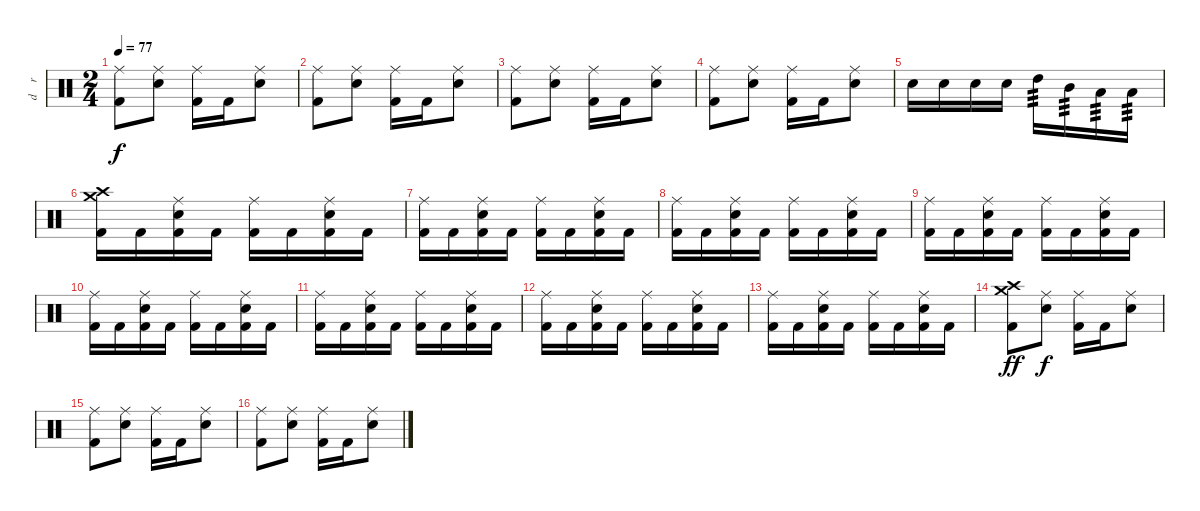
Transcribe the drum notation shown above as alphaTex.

\track ("d    r     u    m    s" "d    r    ") {instrument percussion}
\staff {score}
\articulation defaults
\ts (2 4)
\tempo 77
\clef neutral
\ks c
("Ride (middle)" "Kick (hit) 2").8{dy f} ("Ride (middle)" "Electric Snare (hit)").8 ("Ride (middle)" "Kick (hit) 2").16 "Kick (hit) 2".16 ("Ride (middle)" "Electric Snare (hit)").8 |
("Ride (middle)" "Kick (hit) 2").8 ("Ride (middle)" "Electric Snare (hit)").8 ("Ride (middle)" "Kick (hit) 2").16 "Kick (hit) 2".16 ("Ride (middle)" "Electric Snare (hit)").8 |
("Ride (middle)" "Kick (hit) 2").8 ("Ride (middle)" "Electric Snare (hit)").8 ("Ride (middle)" "Kick (hit) 2").16 "Kick (hit) 2".16 ("Ride (middle)" "Electric Snare (hit)").8 |
("Ride (middle)" "Kick (hit) 2").8 ("Ride (middle)" "Electric Snare (hit)").8 ("Ride (middle)" "Kick (hit) 2").16 "Kick (hit) 2".16 ("Ride (middle)" "Electric Snare (hit)").8 |
"Electric Snare (hit)".16 "Electric Snare (hit)".16 "Electric Snare (hit)".16 "Electric Snare (hit)".16 "High Tom (hit)".16{tp 3} "Mid Tom (hit)".16{tp 3} "Low Tom (hit)".16{tp 3} "Low Floor Tom (hit)".16{tp 3} |
("Crash high (hit)" "Crash medium (hit)" "Kick (hit) 2").16 "Kick (hit) 2".16 ("Ride (middle)" "Electric Snare (hit)" "Kick (hit) 2").16 "Kick (hit) 2".16 ("Ride (middle)" "Kick (hit) 2").16 "Kick (hit) 2".16 ("Ride (middle)" "Electric Snare (hit)" "Kick (hit) 2").16 "Kick (hit) 2".16 |
("Ride (middle)" "Kick (hit) 2").16 "Kick (hit) 2".16 ("Ride (middle)" "Electric Snare (hit)" "Kick (hit) 2").16 "Kick (hit) 2".16 ("Ride (middle)" "Kick (hit) 2").16 "Kick (hit) 2".16 ("Ride (middle)" "Electric Snare (hit)" "Kick (hit) 2").16 "Kick (hit) 2".16 |
("Ride (middle)" "Kick (hit) 2").16 "Kick (hit) 2".16 ("Ride (middle)" "Electric Snare (hit)" "Kick (hit) 2").16 "Kick (hit) 2".16 ("Ride (middle)" "Kick (hit) 2").16 "Kick (hit) 2".16 ("Ride (middle)" "Electric Snare (hit)" "Kick (hit) 2").16 "Kick (hit) 2".16 |
("Ride (middle)" "Kick (hit) 2").16 "Kick (hit) 2".16 ("Ride (middle)" "Electric Snare (hit)" "Kick (hit) 2").16 "Kick (hit) 2".16 ("Ride (middle)" "Kick (hit) 2").16 "Kick (hit) 2".16 ("Ride (middle)" "Electric Snare (hit)" "Kick (hit) 2").16 "Kick (hit) 2".16 |
("Ride (middle)" "Kick (hit) 2").16 "Kick (hit) 2".16 ("Ride (middle)" "Electric Snare (hit)" "Kick (hit) 2").16 "Kick (hit) 2".16 ("Ride (middle)" "Kick (hit) 2").16 "Kick (hit) 2".16 ("Ride (middle)" "Electric Snare (hit)" "Kick (hit) 2").16 "Kick (hit) 2".16 |
("Ride (middle)" "Kick (hit) 2").16 "Kick (hit) 2".16 ("Ride (middle)" "Electric Snare (hit)" "Kick (hit) 2").16 "Kick (hit) 2".16 ("Ride (middle)" "Kick (hit) 2").16 "Kick (hit) 2".16 ("Ride (middle)" "Electric Snare (hit)" "Kick (hit) 2").16 "Kick (hit) 2".16 |
("Ride (middle)" "Kick (hit) 2").16 "Kick (hit) 2".16 ("Ride (middle)" "Electric Snare (hit)" "Kick (hit) 2").16 "Kick (hit) 2".16 ("Ride (middle)" "Kick (hit) 2").16 "Kick (hit) 2".16 ("Ride (middle)" "Electric Snare (hit)" "Kick (hit) 2").16 "Kick (hit) 2".16 |
("Ride (middle)" "Kick (hit) 2").16 "Kick (hit) 2".16 ("Ride (middle)" "Electric Snare (hit)" "Kick (hit) 2").16 "Kick (hit) 2".16 ("Ride (middle)" "Kick (hit) 2").16 "Kick (hit) 2".16 ("Ride (middle)" "Electric Snare (hit)" "Kick (hit) 2").16 "Kick (hit) 2".16 |
("Crash high (hit)" "Crash medium (hit)" "Kick (hit) 2").8{dy ff} ("Ride (middle)" "Electric Snare (hit)").8{dy f} ("Ride (middle)" "Kick (hit) 2").16 "Kick (hit) 2".16 ("Ride (middle)" "Electric Snare (hit)").8 |
("Ride (middle)" "Kick (hit) 2").8 ("Ride (middle)" "Electric Snare (hit)").8 ("Ride (middle)" "Kick (hit) 2").16 "Kick (hit) 2".16 ("Ride (middle)" "Electric Snare (hit)").8 |
("Ride (middle)" "Kick (hit) 2").8 ("Ride (middle)" "Electric Snare (hit)").8 ("Ride (middle)" "Kick (hit) 2").16 "Kick (hit) 2".16 ("Ride (middle)" "Electric Snare (hit)").8
